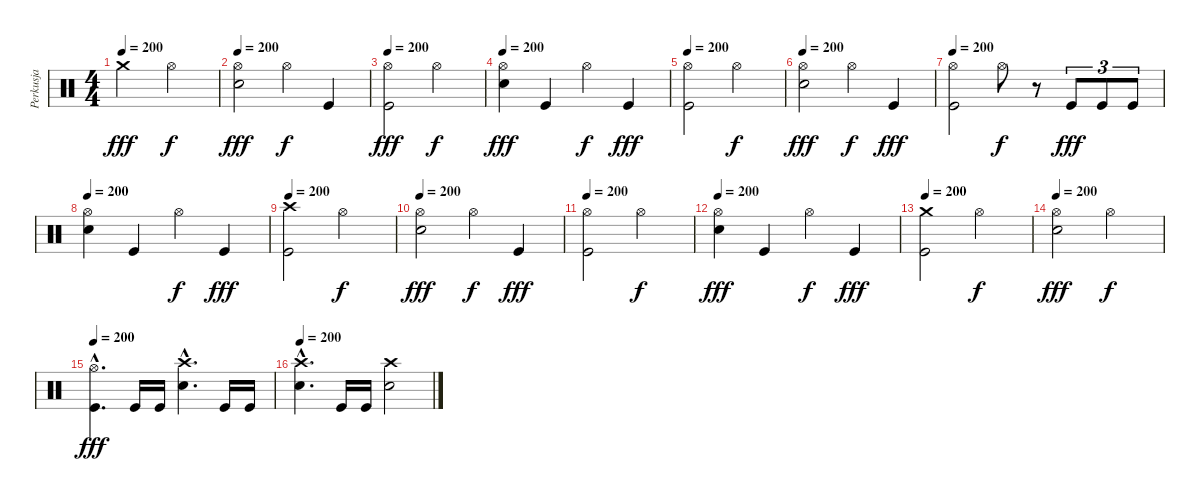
\track ("Perkusja" "Perkusja") {instrument percussion}
\staff {score}
\articulation defaults
\ts (4 4)
\tempo 200
\clef neutral
\ks c "Crash medium (hit)".2{dy fff} "Hi-Hat (open)".2{dy f}
|
\tempo 200
("Hi-Hat (open)" "Snare (hit) 2").2{dy fff} "Hi-Hat (open)".4{dy f} "Kick (hit)".4 |
\tempo 200
("Hi-Hat (open)" "Kick (hit)").2{dy fff} "Hi-Hat (open)".2{dy f} |
\tempo 200
("Hi-Hat (open)" "Snare (hit) 2").4{dy fff} "Kick (hit)".4 "Hi-Hat (open)".4{dy f} "Kick (hit)".4{dy fff} |
\tempo 200
("Hi-Hat (open)" "Kick (hit)").2 "Hi-Hat (open)".2{dy f} |
\tempo 200
("Hi-Hat (open)" "Snare (hit) 2").2{dy fff} "Hi-Hat (open)".4{dy f} "Kick (hit)".4{dy fff} |
\tempo 200
("Hi-Hat (open)" "Kick (hit)").2 "Hi-Hat (open)".8{dy f} r.8 "Kick (hit)".8{tu (3 2) dy fff} "Kick (hit)".8{tu (3 2)} "Kick (hit)".8{tu (3 2)} |
\tempo 200
("Hi-Hat (open)" "Snare (hit) 2").4 "Kick (hit)".4 "Hi-Hat (open)".4{dy f} "Kick (hit)".4{dy fff} |
\tempo 200
("Crash high (hit)" "Kick (hit)").2 "Hi-Hat (open)".2{dy f} |
\tempo 200
("Hi-Hat (open)" "Snare (hit) 2").2{dy fff} "Hi-Hat (open)".4{dy f} "Kick (hit)".4{dy fff} |
\tempo 200
("Hi-Hat (open)" "Kick (hit)").2 "Hi-Hat (open)".2{dy f} |
\tempo 200
("Hi-Hat (open)" "Snare (hit) 2").4{dy fff} "Kick (hit)".4 "Hi-Hat (open)".4{dy f} "Kick (hit)".4{dy fff} |
\tempo 200
("Crash medium (hit)" "Kick (hit)").2 "Hi-Hat (open)".2{dy f} |
\tempo 200
("Hi-Hat (open)" "Snare (hit) 2").2{dy fff} "Hi-Hat (open)".2{dy f} |
\tempo 200
("Hi-Hat (open)"{hac} "Kick (hit)"{hac}).4{d dy fff} "Kick (hit)".16 "Kick (hit)".16 ("Crash high (hit)"{hac} "Snare (hit) 2"{hac}).4{d} "Kick (hit)".16 "Kick (hit)".16 |
\tempo 200
("Crash high (hit)"{hac} "Snare (hit) 2"{hac}).4{d} "Kick (hit)".16 "Kick (hit)".16 ("Crash high (hit)" "Snare (hit) 2").2
